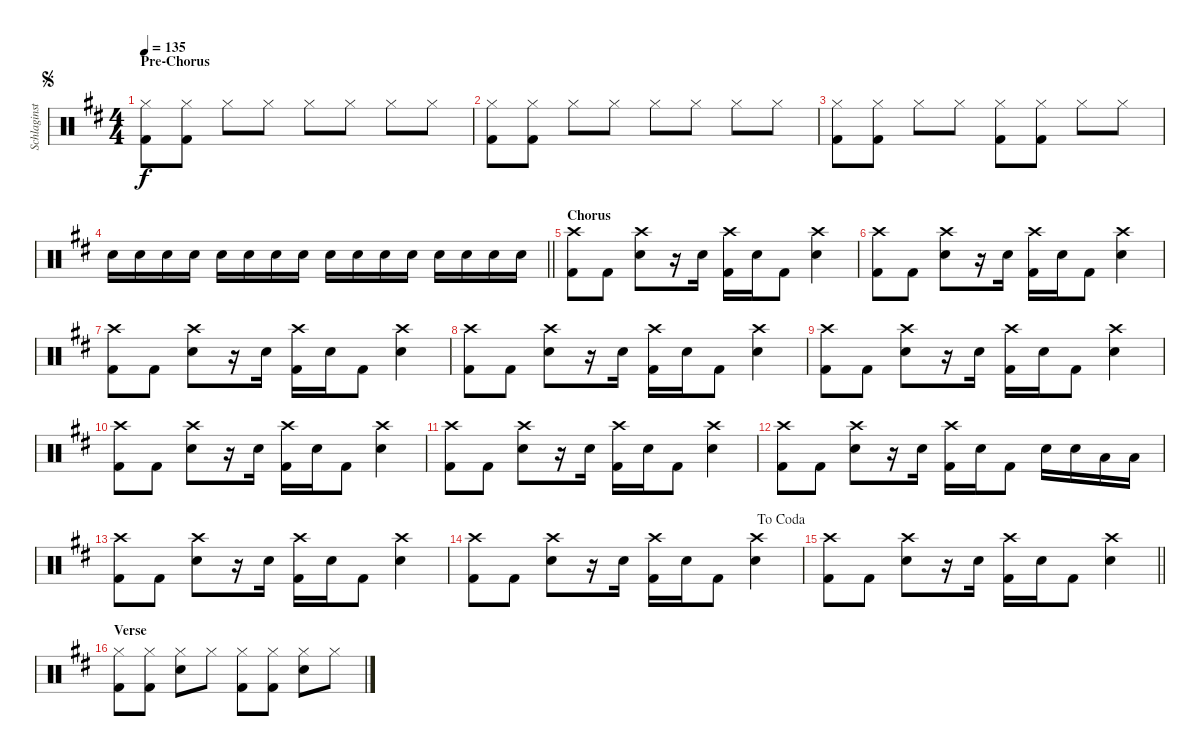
\track ("Schlaginstrumente - Auswahl" "Schlaginst") {instrument percussion}
\staff {score}
\articulation defaults
\ts (4 4)
\section ("" "Pre-Chorus")
\jump segno
\tempo 135
\clef neutral
\ks d
("Hi-Hat (closed)" "Kick (hit) 2").8{dy f} ("Hi-Hat (closed)" "Kick (hit) 2").8 "Hi-Hat (closed)".8 "Hi-Hat (closed)".8 "Hi-Hat (closed)".8 "Hi-Hat (closed)".8 "Hi-Hat (closed)".8 "Hi-Hat (closed)".8 |
("Hi-Hat (closed)" "Kick (hit) 2").8 ("Hi-Hat (closed)" "Kick (hit) 2").8 "Hi-Hat (closed)".8 "Hi-Hat (closed)".8 "Hi-Hat (closed)".8 "Hi-Hat (closed)".8 "Hi-Hat (closed)".8 "Hi-Hat (closed)".8 |
("Hi-Hat (closed)" "Kick (hit) 2").8 ("Hi-Hat (closed)" "Kick (hit) 2").8 "Hi-Hat (closed)".8 "Hi-Hat (closed)".8 ("Hi-Hat (closed)" "Kick (hit) 2").8 ("Hi-Hat (closed)" "Kick (hit) 2").8 "Hi-Hat (closed)".8 "Hi-Hat (closed)".8 |
\barLineRight lightlight "Snare (hit) 2".16 "Snare (hit) 2".16 "Snare (hit) 2".16 "Snare (hit) 2".16 "Snare (hit) 2".16 "Snare (hit) 2".16 "Snare (hit) 2".16 "Snare (hit) 2".16 "Snare (hit) 2".16 "Snare (hit) 2".16 "Snare (hit) 2".16 "Snare (hit) 2".16 "Snare (hit) 2".16 "Snare (hit) 2".16 "Snare (hit) 2".16 "Snare (hit) 2".16
|
\section ("" "Chorus")
("Crash high (hit)" "Kick (hit) 2").8 "Kick (hit) 2".8 ("Crash high (hit)" "Snare (hit) 2").8 r.16 "Snare (hit) 2".16 ("Crash high (hit)" "Kick (hit) 2").16 "Snare (hit) 2".16 "Kick (hit) 2".8 ("Crash high (hit)" "Snare (hit) 2").4 |
("Crash high (hit)" "Kick (hit) 2").8 "Kick (hit) 2".8 ("Crash high (hit)" "Snare (hit) 2").8 r.16 "Snare (hit) 2".16 ("Crash high (hit)" "Kick (hit) 2").16 "Snare (hit) 2".16 "Kick (hit) 2".8 ("Crash high (hit)" "Snare (hit) 2").4 |
("Crash high (hit)" "Kick (hit) 2").8 "Kick (hit) 2".8 ("Crash high (hit)" "Snare (hit) 2").8 r.16 "Snare (hit) 2".16 ("Crash high (hit)" "Kick (hit) 2").16 "Snare (hit) 2".16 "Kick (hit) 2".8 ("Crash high (hit)" "Snare (hit) 2").4 |
("Crash high (hit)" "Kick (hit) 2").8 "Kick (hit) 2".8 ("Crash high (hit)" "Snare (hit) 2").8 r.16 "Snare (hit) 2".16 ("Crash high (hit)" "Kick (hit) 2").16 "Snare (hit) 2".16 "Kick (hit) 2".8 ("Crash high (hit)" "Snare (hit) 2").4 |
("Crash high (hit)" "Kick (hit) 2").8 "Kick (hit) 2".8 ("Crash high (hit)" "Snare (hit) 2").8 r.16 "Snare (hit) 2".16 ("Crash high (hit)" "Kick (hit) 2").16 "Snare (hit) 2".16 "Kick (hit) 2".8 ("Crash high (hit)" "Snare (hit) 2").4 |
("Crash high (hit)" "Kick (hit) 2").8 "Kick (hit) 2".8 ("Crash high (hit)" "Snare (hit) 2").8 r.16 "Snare (hit) 2".16 ("Crash high (hit)" "Kick (hit) 2").16 "Snare (hit) 2".16 "Kick (hit) 2".8 ("Crash high (hit)" "Snare (hit) 2").4 |
("Crash high (hit)" "Kick (hit) 2").8 "Kick (hit) 2".8 ("Crash high (hit)" "Snare (hit) 2").8 r.16 "Snare (hit) 2".16 ("Crash high (hit)" "Kick (hit) 2").16 "Snare (hit) 2".16 "Kick (hit) 2".8 ("Crash high (hit)" "Snare (hit) 2").4 |
("Crash high (hit)" "Kick (hit) 2").8 "Kick (hit) 2".8 ("Crash high (hit)" "Snare (hit) 2").8 r.16 "Snare (hit) 2".16 ("Crash high (hit)" "Kick (hit) 2").16 "Snare (hit) 2".16 "Kick (hit) 2".8 "Snare (hit) 2".16 "Snare (hit) 2".16 "Low Tom (hit)".16 "Low Tom (hit)".16 |
("Crash high (hit)" "Kick (hit) 2").8 "Kick (hit) 2".8 ("Crash high (hit)" "Snare (hit) 2").8 r.16 "Snare (hit) 2".16 ("Crash high (hit)" "Kick (hit) 2").16 "Snare (hit) 2".16 "Kick (hit) 2".8 ("Crash high (hit)" "Snare (hit) 2").4 |
\jump dacoda
("Crash high (hit)" "Kick (hit) 2").8 "Kick (hit) 2".8 ("Crash high (hit)" "Snare (hit) 2").8 r.16 "Snare (hit) 2".16 ("Crash high (hit)" "Kick (hit) 2").16 "Snare (hit) 2".16 "Kick (hit) 2".8 ("Crash high (hit)" "Snare (hit) 2").4 |
\barLineRight lightlight
("Crash high (hit)" "Kick (hit) 2").8 "Kick (hit) 2".8 ("Crash high (hit)" "Snare (hit) 2").8 r.16 "Snare (hit) 2".16 ("Crash high (hit)" "Kick (hit) 2").16 "Snare (hit) 2".16 "Kick (hit) 2".8 ("Crash high (hit)" "Snare (hit) 2").4 |
\section ("" "Verse")
("Hi-Hat (closed)" "Kick (hit) 2").8 ("Hi-Hat (closed)" "Kick (hit) 2").8 ("Hi-Hat (closed)" "Snare (hit) 2").8 "Hi-Hat (closed)".8 ("Hi-Hat (closed)" "Kick (hit) 2").8 ("Hi-Hat (closed)" "Kick (hit) 2").8 ("Hi-Hat (closed)" "Snare (hit) 2").8 "Hi-Hat (closed)".8
